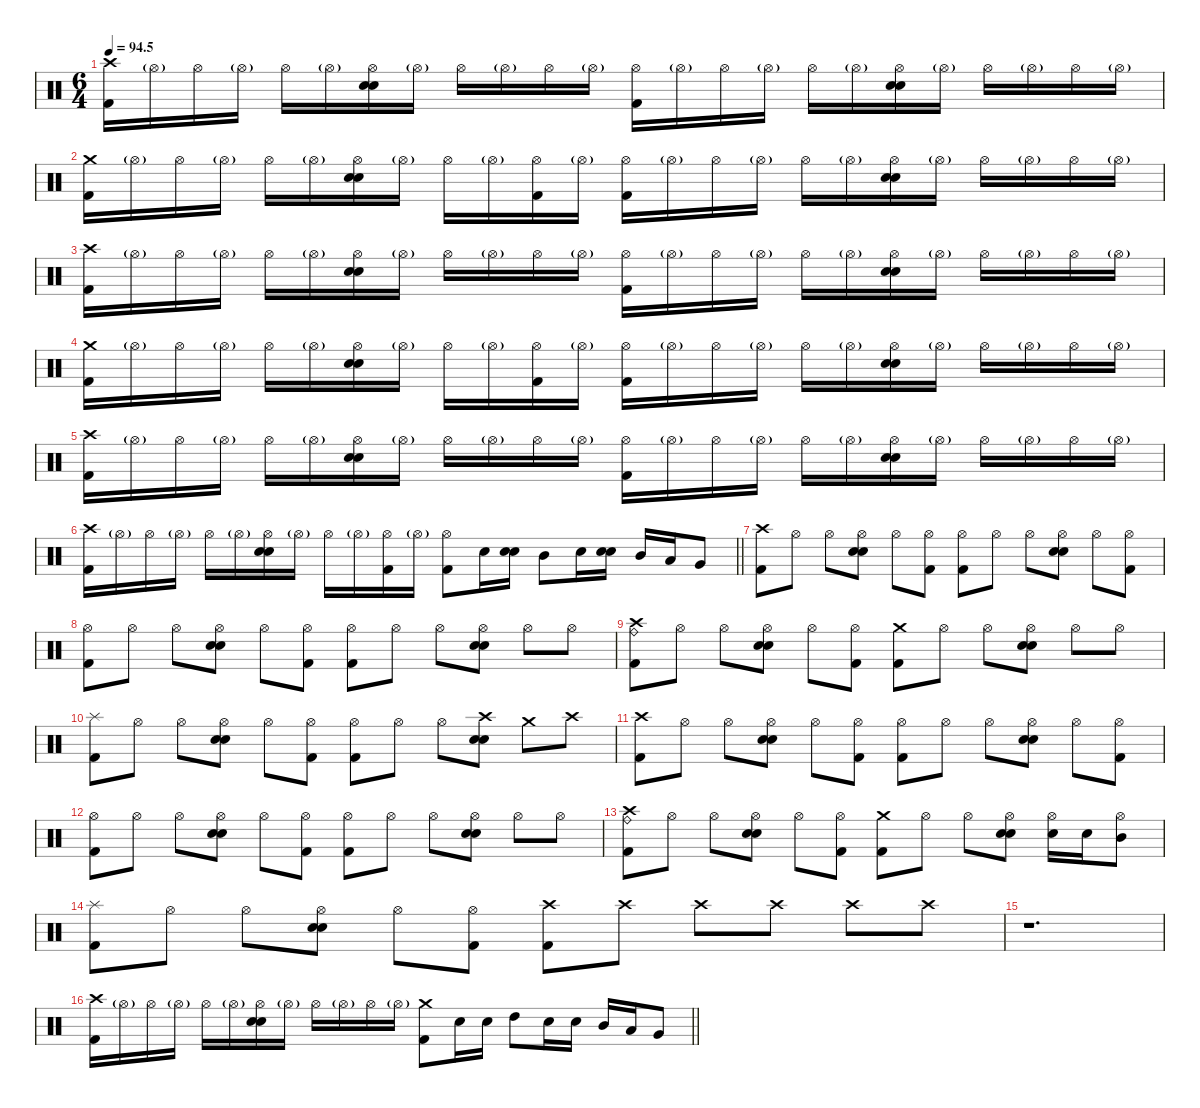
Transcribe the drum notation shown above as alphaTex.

\defaultSystemsLayout 4
\hideDynamics
\bracketExtendMode nobrackets
\singleTrackTrackNamePolicy hidden
\multiTrackTrackNamePolicy hidden
\firstSystemTrackNameMode fullname
\firstSystemTrackNameOrientation horizontal
\otherSystemsTrackNameOrientation horizontal
\track ("Drums" "drm.") {defaultSystemsLayout 2 instrument percussion}
\staff {score}
\articulation defaults
\ts (6 4)
\tempo
94.5
\accidentals auto
\clef neutral
\ottava regular
\simile none
\ks c
("Crash high (hit)" "Kick (hit) 2").16{dy fff beam Down} "Hi-Hat (open)"{g}.16{dy mf beam Down} "Hi-Hat (open)".16{beam Down} "Hi-Hat (open)"{g}.16{beam Down} "Hi-Hat (open)".16{beam Down} "Hi-Hat (open)"{g}.16{beam Down} ("Hi-Hat (open)" "Snare (hit) 2" "Metronome (bell)").16{beam Down} "Hi-Hat (open)"{g}.16{beam Down} "Hi-Hat (open)".16{beam Down} "Hi-Hat (open)"{g}.16{beam Down} "Hi-Hat (open)".16{beam Down} "Hi-Hat (open)"{g}.16{beam Down} ("Hi-Hat (open)" "Kick (hit) 2").16{beam Down} "Hi-Hat (open)"{g}.16{beam Down} "Hi-Hat (open)".16{beam Down} "Hi-Hat (open)"{g}.16{beam Down} "Hi-Hat (open)".16{beam Down} "Hi-Hat (open)"{g}.16{beam Down} ("Hi-Hat (open)" "Snare (hit) 2" "Metronome (bell)").16{beam Down} "Hi-Hat (open)"{g}.16{beam Down} "Hi-Hat (open)".16{beam Down} "Hi-Hat (open)"{g}.16{beam Down} "Hi-Hat (open)".16{beam Down} "Hi-Hat (open)"{g}.16{beam Down} |
("Crash medium (hit)" "Kick (hit) 2").16{beam Down} "Hi-Hat (open)"{g}.16{beam Down} "Hi-Hat (open)".16{beam Down} "Hi-Hat (open)"{g}.16{beam Down} "Hi-Hat (open)".16{beam Down} "Hi-Hat (open)"{g}.16{beam Down} ("Hi-Hat (open)" "Snare (hit) 2" "Metronome (bell)").16{beam Down} "Hi-Hat (open)"{g}.16{beam Down} "Hi-Hat (open)".16{beam Down} "Hi-Hat (open)"{g}.16{beam Down} ("Hi-Hat (open)" "Kick (hit) 2").16{beam Down} "Hi-Hat (open)"{g}.16{beam Down} ("Hi-Hat (open)" "Kick (hit) 2").16{beam Down} "Hi-Hat (open)"{g}.16{beam Down} "Hi-Hat (open)".16{beam Down} "Hi-Hat (open)"{g}.16{beam Down} "Hi-Hat (open)".16{beam Down} "Hi-Hat (open)"{g}.16{beam Down} ("Hi-Hat (open)" "Snare (hit) 2" "Metronome (bell)").16{beam Down} "Hi-Hat (open)"{g}.16{beam Down} "Hi-Hat (open)".16{beam Down} "Hi-Hat (open)"{g}.16{beam Down} "Hi-Hat (open)".16{beam Down} "Hi-Hat (open)"{g}.16{beam Down} |
("Crash high (hit)" "Kick (hit) 2").16{dy fff beam Down} "Hi-Hat (open)"{g}.16{dy mf beam Down} "Hi-Hat (open)".16{beam Down} "Hi-Hat (open)"{g}.16{beam Down} "Hi-Hat (open)".16{beam Down} "Hi-Hat (open)"{g}.16{beam Down} ("Hi-Hat (open)" "Snare (hit) 2" "Metronome (bell)").16{beam Down} "Hi-Hat (open)"{g}.16{beam Down} "Hi-Hat (open)".16{beam Down} "Hi-Hat (open)"{g}.16{beam Down} "Hi-Hat (open)".16{beam Down} "Hi-Hat (open)"{g}.16{beam Down} ("Hi-Hat (open)" "Kick (hit) 2").16{beam Down} "Hi-Hat (open)"{g}.16{beam Down} "Hi-Hat (open)".16{beam Down} "Hi-Hat (open)"{g}.16{beam Down} "Hi-Hat (open)".16{beam Down} "Hi-Hat (open)"{g}.16{beam Down} ("Hi-Hat (open)" "Snare (hit) 2" "Metronome (bell)").16{beam Down} "Hi-Hat (open)"{g}.16{beam Down} "Hi-Hat (open)".16{beam Down} "Hi-Hat (open)"{g}.16{beam Down} "Hi-Hat (open)".16{beam Down} "Hi-Hat (open)"{g}.16{beam Down} |
("Crash medium (hit)" "Kick (hit) 2").16{beam Down} "Hi-Hat (open)"{g}.16{beam Down} "Hi-Hat (open)".16{beam Down} "Hi-Hat (open)"{g}.16{beam Down} "Hi-Hat (open)".16{beam Down} "Hi-Hat (open)"{g}.16{beam Down} ("Hi-Hat (open)" "Snare (hit) 2" "Metronome (bell)").16{beam Down} "Hi-Hat (open)"{g}.16{beam Down} "Hi-Hat (open)".16{beam Down} "Hi-Hat (open)"{g}.16{beam Down} ("Hi-Hat (open)" "Kick (hit) 2").16{beam Down} "Hi-Hat (open)"{g}.16{beam Down} ("Hi-Hat (open)" "Kick (hit) 2").16{beam Down} "Hi-Hat (open)"{g}.16{beam Down} "Hi-Hat (open)".16{beam Down} "Hi-Hat (open)"{g}.16{beam Down} "Hi-Hat (open)".16{beam Down} "Hi-Hat (open)"{g}.16{beam Down} ("Hi-Hat (open)" "Snare (hit) 2" "Metronome (bell)").16{beam Down} "Hi-Hat (open)"{g}.16{beam Down} "Hi-Hat (open)".16{beam Down} "Hi-Hat (open)"{g}.16{beam Down} "Hi-Hat (open)".16{beam Down} "Hi-Hat (open)"{g}.16{beam Down} |
("Crash high (hit)" "Kick (hit) 2").16{dy fff beam Down} "Hi-Hat (open)"{g}.16{dy mf beam Down} "Hi-Hat (open)".16{beam Down} "Hi-Hat (open)"{g}.16{beam Down} "Hi-Hat (open)".16{beam Down} "Hi-Hat (open)"{g}.16{beam Down} ("Hi-Hat (open)" "Snare (hit) 2" "Metronome (bell)").16{beam Down} "Hi-Hat (open)"{g}.16{beam Down} "Hi-Hat (open)".16{beam Down} "Hi-Hat (open)"{g}.16{beam Down} "Hi-Hat (open)".16{beam Down} "Hi-Hat (open)"{g}.16{beam Down} ("Hi-Hat (open)" "Kick (hit) 2").16{beam Down} "Hi-Hat (open)"{g}.16{beam Down} "Hi-Hat (open)".16{beam Down} "Hi-Hat (open)"{g}.16{beam Down} "Hi-Hat (open)".16{beam Down} "Hi-Hat (open)"{g}.16{beam Down} ("Hi-Hat (open)" "Snare (hit) 2" "Metronome (bell)").16{beam Down} "Hi-Hat (open)"{g}.16{beam Down} "Hi-Hat (open)".16{beam Down} "Hi-Hat (open)"{g}.16{beam Down} "Hi-Hat (open)".16{beam Down} "Hi-Hat (open)"{g}.16{beam Down} |
\barLineRight lightlight
("Crash high (hit)" "Kick (hit) 2").16{dy fff beam Down} "Hi-Hat (open)"{g}.16{dy mf beam Down} "Hi-Hat (open)".16{beam Down} "Hi-Hat (open)"{g}.16{beam Down} "Hi-Hat (open)".16{beam Down} "Hi-Hat (open)"{g}.16{beam Down} ("Hi-Hat (open)" "Snare (hit) 2" "Metronome (bell)").16{beam Down} "Hi-Hat (open)"{g}.16{beam Down} "Hi-Hat (open)".16{beam Down} "Hi-Hat (open)"{g}.16{beam Down} ("Hi-Hat (open)" "Kick (hit) 2").16{beam Down} "Hi-Hat (open)"{g}.16{beam Down} ("Hi-Hat (open)" "Kick (hit) 2").8{beam Down} "Snare (hit) 2".16{dy f beam Down} ("Snare (hit) 2" "Metronome (bell)").16{beam Down} "Mid Tom (hit)".8{dy fff beam Down} "Snare (hit) 2".16{dy f beam Up} ("Snare (hit) 2" "Metronome (bell)").16{beam Up} "Mid Tom (hit)".16{dy fff beam Up} "Low Tom (hit)".16{dy f beam Up} "Very Low Tom (hit)".8{beam Up} |
("Crash high (hit)" "Kick (hit) 2").8{dy fff beam Down} "Hi-Hat (open)".8{dy mf beam Down} "Hi-Hat (open)".8{beam Down} ("Hi-Hat (open)" "Snare (hit) 2" "Metronome (bell)").8{beam Down} "Hi-Hat (open)".8{beam Down} ("Hi-Hat (open)" "Kick (hit) 2").8{beam Down} ("Hi-Hat (open)" "Kick (hit) 2").8{beam Down} "Hi-Hat (open)".8{beam Down} "Hi-Hat (open)".8{beam Down} ("Hi-Hat (open)" "Snare (hit) 2" "Metronome (bell)").8{beam Down} "Hi-Hat (open)".8{beam Down} ("Hi-Hat (open)" "Kick (hit) 2").8{beam Down} |
("Hi-Hat (open)" "Kick (hit) 2").8{beam Down} "Hi-Hat (open)".8{beam Down} "Hi-Hat (open)".8{beam Down} ("Hi-Hat (open)" "Snare (hit) 2" "Metronome (bell)").8{beam Down} "Hi-Hat (open)".8{beam Down} ("Hi-Hat (open)" "Kick (hit) 2").8{beam Down} ("Hi-Hat (open)" "Kick (hit) 2").8{beam Down} "Hi-Hat (open)".8{beam Down} "Hi-Hat (open)".8{beam Down} ("Hi-Hat (open)" "Snare (hit) 2" "Metronome (bell)").8{beam Down} "Hi-Hat (open)".8{beam Down} "Hi-Hat (open)".8{beam Down} |
("Crash high (hit)" "Ride (bell)" "Kick (hit) 2").8{dy fff beam Down} "Hi-Hat (open)".8{dy mf beam Down} "Hi-Hat (open)".8{beam Down} ("Hi-Hat (open)" "Snare (hit) 2" "Metronome (bell)").8{beam Down} "Hi-Hat (open)".8{beam Down} ("Hi-Hat (open)" "Kick (hit) 2").8{beam Down} ("Crash medium (hit)" "Kick (hit) 2").8{dy fff beam Down} "Hi-Hat (open)".8{dy mf beam Down} "Hi-Hat (open)".8{beam Down} ("Hi-Hat (open)" "Snare (hit) 2" "Metronome (bell)").8{beam Down} "Hi-Hat (open)".8{beam Down} "Hi-Hat (open)".8{beam Down} |
("Splash (hit)" "Kick (hit) 2").8{dy ff beam Down} "Hi-Hat (open)".8{dy mf beam Down} "Hi-Hat (open)".8{beam Down} ("Hi-Hat (open)" "Snare (hit) 2" "Metronome (bell)").8{beam Down} "Hi-Hat (open)".8{beam Down} ("Hi-Hat (open)" "Kick (hit) 2").8{beam Down} ("Hi-Hat (open)" "Kick (hit) 2").8{beam Down} "Hi-Hat (open)".8{beam Down} "Hi-Hat (open)".8{beam Down} ("Crash high (hit)" "Snare (hit) 2" "Metronome (bell)").8{dy f beam Down} "Crash medium (hit)".8{beam Down} "Crash high (hit)".8{beam Down} |
("Crash high (hit)" "Kick (hit) 2").8{dy fff beam Down} "Hi-Hat (open)".8{dy mf beam Down} "Hi-Hat (open)".8{beam Down} ("Hi-Hat (open)" "Snare (hit) 2" "Metronome (bell)").8{beam Down} "Hi-Hat (open)".8{beam Down} ("Hi-Hat (open)" "Kick (hit) 2").8{beam Down} ("Hi-Hat (open)" "Kick (hit) 2").8{beam Down} "Hi-Hat (open)".8{beam Down} "Hi-Hat (open)".8{beam Down} ("Hi-Hat (open)" "Snare (hit) 2" "Metronome (bell)").8{beam Down} "Hi-Hat (open)".8{beam Down} ("Hi-Hat (open)" "Kick (hit) 2").8{beam Down} |
("Hi-Hat (open)" "Kick (hit) 2").8{beam Down} "Hi-Hat (open)".8{beam Down} "Hi-Hat (open)".8{beam Down} ("Hi-Hat (open)" "Snare (hit) 2" "Metronome (bell)").8{beam Down} "Hi-Hat (open)".8{beam Down} ("Hi-Hat (open)" "Kick (hit) 2").8{beam Down} ("Hi-Hat (open)" "Kick (hit) 2").8{beam Down} "Hi-Hat (open)".8{beam Down} "Hi-Hat (open)".8{beam Down} ("Hi-Hat (open)" "Snare (hit) 2" "Metronome (bell)").8{beam Down} "Hi-Hat (open)".8{beam Down} "Hi-Hat (open)".8{beam Down} |
("Crash high (hit)" "Ride (bell)" "Kick (hit) 2").8{dy fff beam Down} "Hi-Hat (open)".8{dy mf beam Down} "Hi-Hat (open)".8{beam Down} ("Hi-Hat (open)" "Snare (hit) 2" "Metronome (bell)").8{beam Down} "Hi-Hat (open)".8{beam Down} ("Hi-Hat (open)" "Kick (hit) 2").8{beam Down} ("Crash medium (hit)" "Kick (hit) 2").8{dy fff beam Down} "Hi-Hat (open)".8{dy mf beam Down} "Hi-Hat (open)".8{beam Down} ("Hi-Hat (open)" "Snare (hit) 2" "Metronome (bell)").8{beam Down} ("Hi-Hat (open)" "Snare (hit) 2").16{beam Down} "Snare (hit) 2".16{dy f beam Down} ("Hi-Hat (open)" "Mid Tom (hit)").8{dy mf beam Down} |
("Splash (hit)" "Kick (hit) 2").8{dy ff beam Down} "Hi-Hat (open)".8{dy mf beam Down} "Hi-Hat (open)".8{beam Down} ("Hi-Hat (open)" "Snare (hit) 2" "Metronome (bell)").8{beam Down} "Hi-Hat (open)".8{beam Down} ("Hi-Hat (open)" "Kick (hit) 2").8{beam Down} ("Crash high (hit)" "Kick (hit) 2").8{dy fff beam Down} "Crash high (hit)".8{dy mf beam Down} "Crash high (hit)".8{dy mp beam Down} "Crash high (hit)".8{dy p beam Down} "Crash high (hit)".8{dy pp beam Down} "Crash high (hit)".8{beam Down} |
r.1{d beam Down} |
\barLineRight lightlight
("Crash high (hit)" "Kick (hit) 2").16{dy fff beam Down} "Hi-Hat (open)"{g}.16{dy mf beam Down} "Hi-Hat (open)".16{beam Down} "Hi-Hat (open)"{g}.16{beam Down} "Hi-Hat (open)".16{beam Down} "Hi-Hat (open)"{g}.16{beam Down} ("Hi-Hat (open)" "Snare (hit) 2" "Metronome (bell)").16{beam Down} "Hi-Hat (open)"{g}.16{beam Down} "Hi-Hat (open)".16{beam Down} "Hi-Hat (open)"{g}.16{beam Down} "Hi-Hat (open)".16{beam Down} "Hi-Hat (open)"{g}.16{beam Down} ("Crash medium (hit)" "Kick (hit) 2").8{dy fff beam Down} "Snare (hit) 2".16{dy mp beam Down} "Snare (hit) 2".16{dy f beam Down} "High Tom (hit)".8{dy ff beam Down} "Snare (hit) 2".16{dy mp beam Up} "Snare (hit) 2".16{dy f beam Up} "Mid Tom (hit)".16{beam Up} "Low Tom (hit)".16{beam Up} "Very Low Tom (hit)".8{beam Up}
